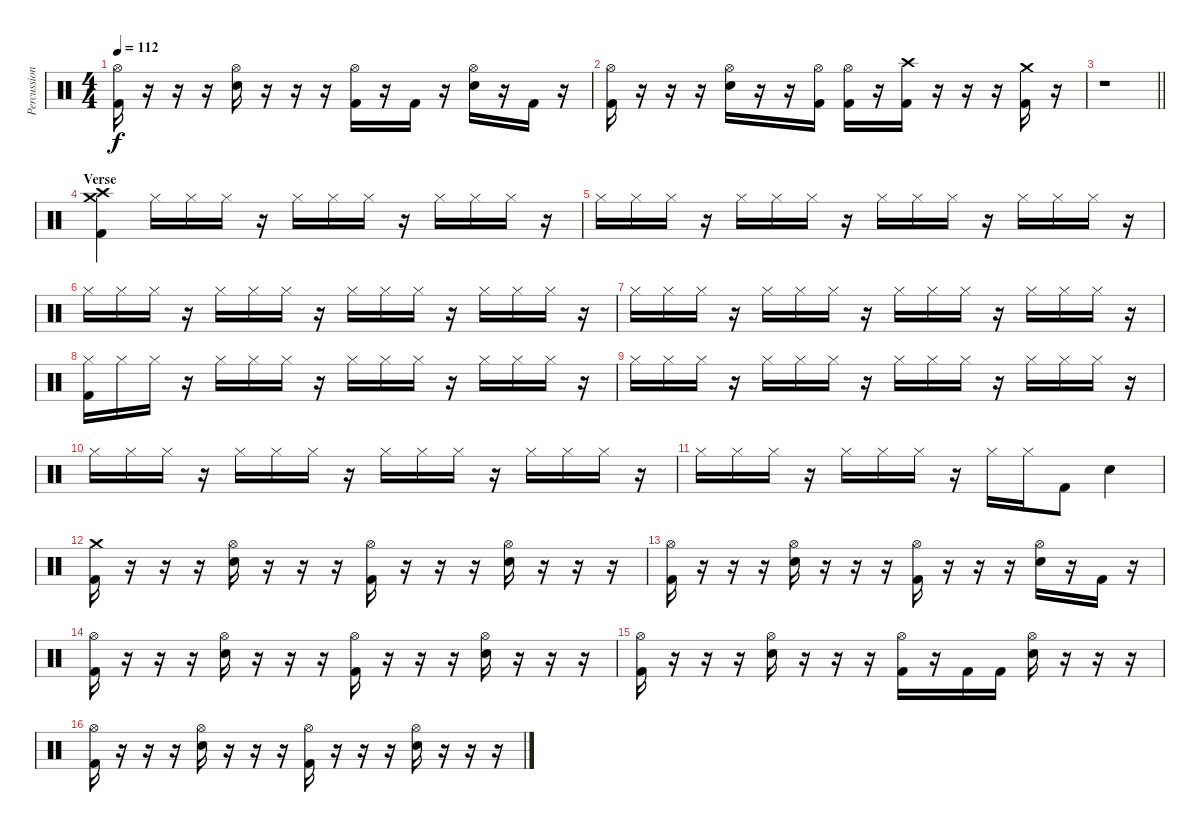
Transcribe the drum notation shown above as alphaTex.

\track ("Percussioni" "Percussion") {instrument percussion}
\staff {score}
\articulation defaults
\ts (4 4)
\tempo 112
\clef neutral
\ks c
("Kick (hit) 2" "Hi-Hat (open)").16{dy f} r.16 r.16 r.16 ("Snare (hit) 2" "Hi-Hat (open)").16 r.16 r.16 r.16 ("Kick (hit) 2" "Hi-Hat (open)").16 r.16 "Kick (hit) 2".16 r.16 ("Snare (hit) 2" "Hi-Hat (open)").16 r.16 "Kick (hit) 2".16 r.16 |
("Kick (hit) 2" "Hi-Hat (open)").16 r.16 r.16 r.16 ("Snare (hit) 2" "Hi-Hat (open)").16 r.16 r.16 ("Kick (hit) 2" "Hi-Hat (open)").16 ("Kick (hit) 2" "Hi-Hat (open)").16 r.16 ("Kick (hit) 2" "Crash high (hit)").16 r.16 r.16 r.16 ("Kick (hit) 2" "Crash medium (hit)").16 r.16 |
\barLineRight lightlight
r.1 |
\section ("" "Verse")
("Kick (hit) 2" "Crash medium (hit)" "Crash high (hit)").4 "Hi-Hat (closed)".16 "Hi-Hat (closed)".16 "Hi-Hat (closed)".16 r.16 "Hi-Hat (closed)".16 "Hi-Hat (closed)".16 "Hi-Hat (closed)".16 r.16 "Hi-Hat (closed)".16 "Hi-Hat (closed)".16 "Hi-Hat (closed)".16 r.16 |
"Hi-Hat (closed)".16 "Hi-Hat (closed)".16 "Hi-Hat (closed)".16 r.16 "Hi-Hat (closed)".16 "Hi-Hat (closed)".16 "Hi-Hat (closed)".16 r.16 "Hi-Hat (closed)".16 "Hi-Hat (closed)".16 "Hi-Hat (closed)".16 r.16 "Hi-Hat (closed)".16 "Hi-Hat (closed)".16 "Hi-Hat (closed)".16 r.16 |
"Hi-Hat (closed)".16 "Hi-Hat (closed)".16 "Hi-Hat (closed)".16 r.16 "Hi-Hat (closed)".16 "Hi-Hat (closed)".16 "Hi-Hat (closed)".16 r.16 "Hi-Hat (closed)".16 "Hi-Hat (closed)".16 "Hi-Hat (closed)".16 r.16 "Hi-Hat (closed)".16 "Hi-Hat (closed)".16 "Hi-Hat (closed)".16 r.16 |
"Hi-Hat (closed)".16 "Hi-Hat (closed)".16 "Hi-Hat (closed)".16 r.16 "Hi-Hat (closed)".16 "Hi-Hat (closed)".16 "Hi-Hat (closed)".16 r.16 "Hi-Hat (closed)".16 "Hi-Hat (closed)".16 "Hi-Hat (closed)".16 r.16 "Hi-Hat (closed)".16 "Hi-Hat (closed)".16 "Hi-Hat (closed)".16 r.16 |
("Kick (hit) 2" "Hi-Hat (closed)").16 "Hi-Hat (closed)".16 "Hi-Hat (closed)".16 r.16 "Hi-Hat (closed)".16 "Hi-Hat (closed)".16 "Hi-Hat (closed)".16 r.16 "Hi-Hat (closed)".16 "Hi-Hat (closed)".16 "Hi-Hat (closed)".16 r.16 "Hi-Hat (closed)".16 "Hi-Hat (closed)".16 "Hi-Hat (closed)".16 r.16 |
"Hi-Hat (closed)".16 "Hi-Hat (closed)".16 "Hi-Hat (closed)".16 r.16 "Hi-Hat (closed)".16 "Hi-Hat (closed)".16 "Hi-Hat (closed)".16 r.16 "Hi-Hat (closed)".16 "Hi-Hat (closed)".16 "Hi-Hat (closed)".16 r.16 "Hi-Hat (closed)".16 "Hi-Hat (closed)".16 "Hi-Hat (closed)".16 r.16 |
"Hi-Hat (closed)".16 "Hi-Hat (closed)".16 "Hi-Hat (closed)".16 r.16 "Hi-Hat (closed)".16 "Hi-Hat (closed)".16 "Hi-Hat (closed)".16 r.16 "Hi-Hat (closed)".16 "Hi-Hat (closed)".16 "Hi-Hat (closed)".16 r.16 "Hi-Hat (closed)".16 "Hi-Hat (closed)".16 "Hi-Hat (closed)".16 r.16 |
"Hi-Hat (closed)".16 "Hi-Hat (closed)".16 "Hi-Hat (closed)".16 r.16 "Hi-Hat (closed)".16 "Hi-Hat (closed)".16 "Hi-Hat (closed)".16 r.16 "Hi-Hat (closed)".16 "Hi-Hat (closed)".16 "Kick (hit) 2".8 "Snare (hit) 2".4 |
("Kick (hit) 2" "Crash medium (hit)").16 r.16 r.16 r.16 ("Snare (hit) 2" "Hi-Hat (open)").16 r.16 r.16 r.16 ("Kick (hit) 2" "Hi-Hat (open)").16 r.16 r.16 r.16 ("Snare (hit) 2" "Hi-Hat (open)").16 r.16 r.16 r.16 |
("Kick (hit) 2" "Hi-Hat (open)").16 r.16 r.16 r.16 ("Snare (hit) 2" "Hi-Hat (open)").16 r.16 r.16 r.16 ("Kick (hit) 2" "Hi-Hat (open)").16 r.16 r.16 r.16 ("Snare (hit) 2" "Hi-Hat (open)").16 r.16 "Kick (hit) 2".16 r.16 |
("Kick (hit) 2" "Hi-Hat (open)").16 r.16 r.16 r.16 ("Snare (hit) 2" "Hi-Hat (open)").16 r.16 r.16 r.16 ("Kick (hit) 2" "Hi-Hat (open)").16 r.16 r.16 r.16 ("Snare (hit) 2" "Hi-Hat (open)").16 r.16 r.16 r.16 |
("Kick (hit) 2" "Hi-Hat (open)").16 r.16 r.16 r.16 ("Snare (hit) 2" "Hi-Hat (open)").16 r.16 r.16 r.16 ("Kick (hit) 2" "Hi-Hat (open)").16 r.16 "Kick (hit) 2".16 "Kick (hit) 2".16 ("Snare (hit) 2" "Hi-Hat (open)").16 r.16 r.16 r.16 |
("Kick (hit) 2" "Hi-Hat (open)").16 r.16 r.16 r.16 ("Snare (hit) 2" "Hi-Hat (open)").16 r.16 r.16 r.16 ("Kick (hit) 2" "Hi-Hat (open)").16 r.16 r.16 r.16 ("Snare (hit) 2" "Hi-Hat (open)").16 r.16 r.16 r.16
